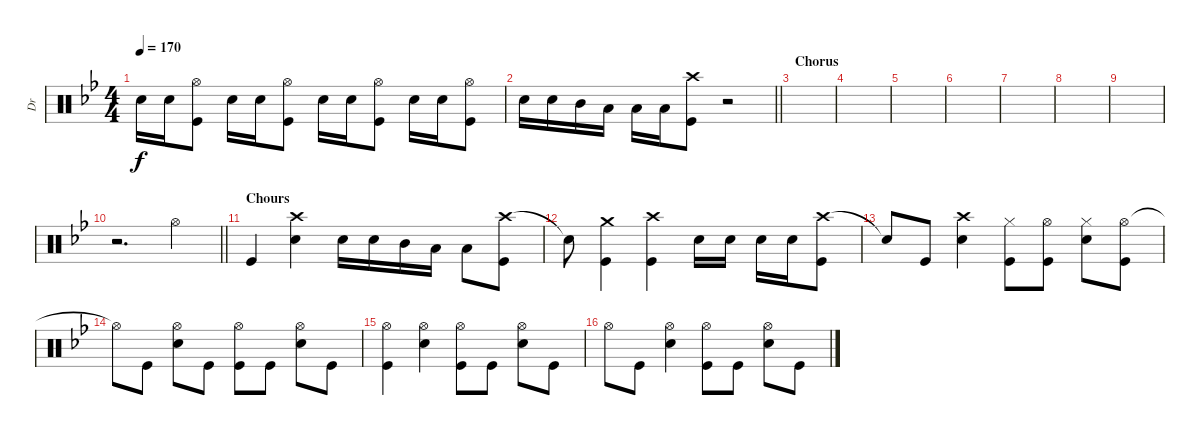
\track ("Dr" "Dr") {instrument percussion}
\staff {score}
\articulation defaults
\ts (4 4)
\tempo 170
\clef neutral
\ks bb "Electric Snare (hit)".16{dy f} "Electric Snare (hit)".16
("Hi-Hat (open)" "Kick (hit)").8 "Electric Snare (hit)".16 "Electric Snare (hit)".16 ("Hi-Hat (open)" "Kick (hit)").8 "Electric Snare (hit)".16 "Electric Snare (hit)".16 ("Hi-Hat (open)" "Kick (hit)").8 "Electric Snare (hit)".16 "Electric Snare (hit)".16 ("Hi-Hat (open)" "Kick (hit)").8 |
\barLineRight lightlight "Electric Snare (hit)".16 "Electric Snare (hit)".16 "Mid Tom (hit)".16 "Low Floor Tom (hit)".16 "Low Floor Tom (hit)".16 "Low Floor Tom (hit)".16
("Crash high (hit)" "Kick (hit)").8 r.2 |
\section ("" "Chorus")
|
|
|
|
|
|
|
\barLineRight lightlight
r.2{d} "Hi-Hat (open)".4 |
\section ("" "Chours")
"Kick (hit)".4 ("Crash high (hit)" "Electric Snare (hit)").4 "Electric Snare (hit)".16 "Electric Snare (hit)".16 "Mid Tom (hit)".16 "Low Floor Tom (hit)".16 "Low Floor Tom (hit)".8 ("Crash high (hit)" "Kick (hit)").8 |
"Snare (hit)"{t}.8 ("Crash medium (hit)" "Kick (hit)").4 ("Crash high (hit)" "Kick (hit)").4 "Electric Snare (hit)".16 "Electric Snare (hit)".16 "Electric Snare (hit)".16 "Electric Snare (hit)".16 ("Crash high (hit)" "Kick (hit)").8 |
"Snare (hit)"{t}.8 "Kick (hit)".8 ("Crash high (hit)" "Electric Snare (hit)").4 ("Hi-Hat (closed)" "Kick (hit)").8 ("Hi-Hat (open)" "Kick (hit)").8 ("Hi-Hat (closed)" "Electric Snare (hit)").8 ("Hi-Hat (open)" "Kick (hit)").8 |
"Hi-Hat (open)"{t}.8 "Kick (hit)".8 ("Hi-Hat (open)" "Electric Snare (hit)").8 "Kick (hit)".8 ("Hi-Hat (open)" "Kick (hit)").8 "Kick (hit)".8 ("Hi-Hat (open)" "Electric Snare (hit)").8 "Kick (hit)".8 |
("Hi-Hat (open)" "Kick (hit)").4 ("Hi-Hat (open)" "Electric Snare (hit)").4 ("Hi-Hat (open)" "Kick (hit)").8 "Kick (hit)".8 ("Hi-Hat (open)" "Electric Snare (hit)").8 "Kick (hit)".8 |
"Hi-Hat (open)".8 "Kick (hit)".8 ("Hi-Hat (open)" "Electric Snare (hit)").4 ("Hi-Hat (open)" "Kick (hit)").8 "Kick (hit)".8 ("Hi-Hat (open)" "Electric Snare (hit)").8 "Kick (hit)".8
